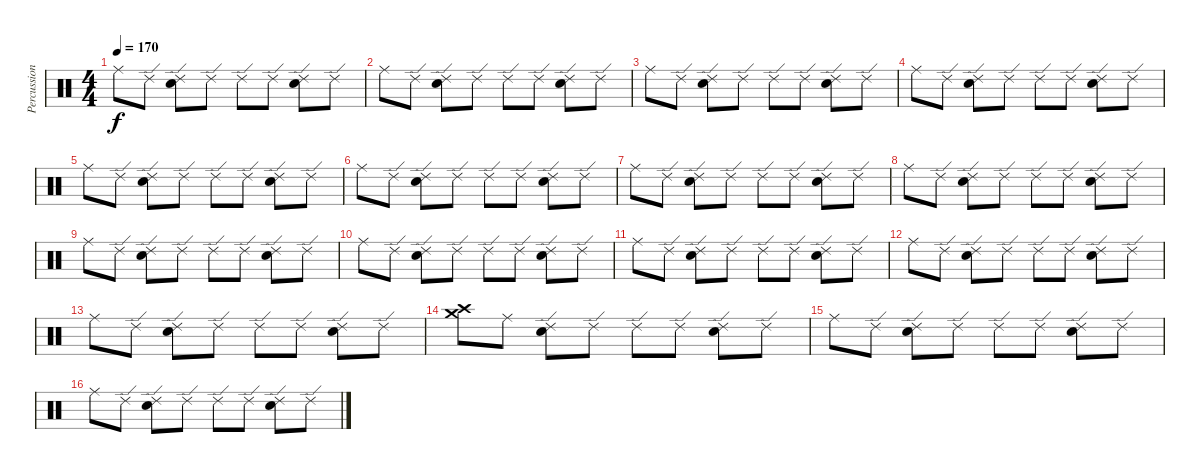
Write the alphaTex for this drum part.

\track ("Percussion" "Percussion") {instrument percussion}
\staff {score}
\articulation defaults
\ts (4 4)
\tempo 170
\clef neutral
\ks c "Ride (middle)".8{dy f} "Ride (edge) 2".8
("Ride (edge) 2" "Electric Snare (hit)").8 "Ride (edge) 2".8 "Ride (edge) 2".8 "Ride (edge) 2".8 ("Ride (edge) 2" "Electric Snare (hit)").8 "Ride (edge) 2".8 |
"Ride (middle)".8 "Ride (edge) 2".8 ("Ride (edge) 2" "Electric Snare (hit)").8 "Ride (edge) 2".8 "Ride (edge) 2".8 "Ride (edge) 2".8 ("Ride (edge) 2" "Electric Snare (hit)").8 "Ride (edge) 2".8 |
"Ride (middle)".8 "Ride (edge) 2".8 ("Ride (edge) 2" "Electric Snare (hit)").8 "Ride (edge) 2".8 "Ride (edge) 2".8 "Ride (edge) 2".8 ("Ride (edge) 2" "Electric Snare (hit)").8 "Ride (edge) 2".8 |
"Ride (middle)".8 "Ride (edge) 2".8 ("Ride (edge) 2" "Electric Snare (hit)").8 "Ride (edge) 2".8 "Ride (edge) 2".8 "Ride (edge) 2".8 ("Ride (edge) 2" "Electric Snare (hit)").8 "Ride (edge) 2".8 |
"Ride (middle)".8 "Ride (edge) 2".8 ("Ride (edge) 2" "Electric Snare (hit)").8 "Ride (edge) 2".8 "Ride (edge) 2".8 "Ride (edge) 2".8 ("Ride (edge) 2" "Electric Snare (hit)").8 "Ride (edge) 2".8 |
"Ride (middle)".8 "Ride (edge) 2".8 ("Ride (edge) 2" "Electric Snare (hit)").8 "Ride (edge) 2".8 "Ride (edge) 2".8 "Ride (edge) 2".8 ("Ride (edge) 2" "Electric Snare (hit)").8 "Ride (edge) 2".8 |
"Ride (middle)".8 "Ride (edge) 2".8 ("Ride (edge) 2" "Electric Snare (hit)").8 "Ride (edge) 2".8 "Ride (edge) 2".8 "Ride (edge) 2".8 ("Ride (edge) 2" "Electric Snare (hit)").8 "Ride (edge) 2".8 |
"Ride (middle)".8 "Ride (edge) 2".8 ("Ride (edge) 2" "Electric Snare (hit)").8 "Ride (edge) 2".8 "Ride (edge) 2".8 "Ride (edge) 2".8 ("Ride (edge) 2" "Electric Snare (hit)").8 "Ride (edge) 2".8 |
"Ride (middle)".8 "Ride (edge) 2".8 ("Ride (edge) 2" "Electric Snare (hit)").8 "Ride (edge) 2".8 "Ride (edge) 2".8 "Ride (edge) 2".8 ("Ride (edge) 2" "Electric Snare (hit)").8 "Ride (edge) 2".8 |
"Ride (middle)".8 "Ride (edge) 2".8 ("Ride (edge) 2" "Electric Snare (hit)").8 "Ride (edge) 2".8 "Ride (edge) 2".8 "Ride (edge) 2".8 ("Ride (edge) 2" "Electric Snare (hit)").8 "Ride (edge) 2".8 |
"Ride (middle)".8 "Ride (edge) 2".8 ("Ride (edge) 2" "Electric Snare (hit)").8 "Ride (edge) 2".8 "Ride (edge) 2".8 "Ride (edge) 2".8 ("Ride (edge) 2" "Electric Snare (hit)").8 "Ride (edge) 2".8 |
"Ride (middle)".8 "Ride (edge) 2".8 ("Ride (edge) 2" "Electric Snare (hit)").8 "Ride (edge) 2".8 "Ride (edge) 2".8 "Ride (edge) 2".8 ("Ride (edge) 2" "Electric Snare (hit)").8 "Ride (edge) 2".8 |
"Ride (middle)".8 "Ride (edge) 2".8 ("Ride (edge) 2" "Electric Snare (hit)").8 "Ride (edge) 2".8 "Ride (edge) 2".8 "Ride (edge) 2".8 ("Ride (edge) 2" "Electric Snare (hit)").8 "Ride (edge) 2".8 |
("Crash medium (hit)" "Crash high (hit)").8 "Ride (middle)".8 ("Ride (edge) 2" "Electric Snare (hit)").8 "Ride (edge) 2".8 "Ride (edge) 2".8 "Ride (edge) 2".8 ("Ride (edge) 2" "Electric Snare (hit)").8 "Ride (edge) 2".8 |
"Ride (middle)".8 "Ride (edge) 2".8 ("Ride (edge) 2" "Electric Snare (hit)").8 "Ride (edge) 2".8 "Ride (edge) 2".8 "Ride (edge) 2".8 ("Ride (edge) 2" "Electric Snare (hit)").8 "Ride (edge) 2".8 |
"Ride (middle)".8 "Ride (edge) 2".8 ("Ride (edge) 2" "Electric Snare (hit)").8 "Ride (edge) 2".8 "Ride (edge) 2".8 "Ride (edge) 2".8 ("Ride (edge) 2" "Electric Snare (hit)").8 "Ride (edge) 2".8
